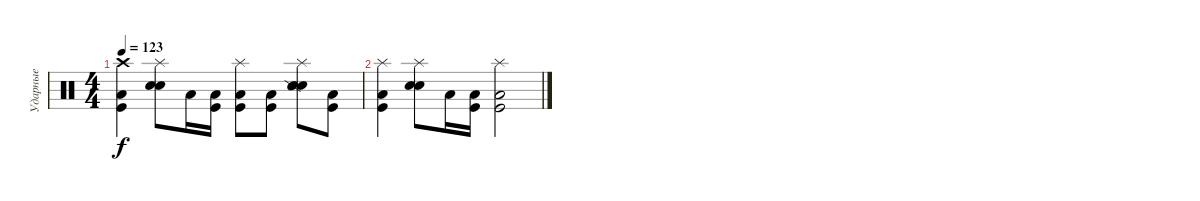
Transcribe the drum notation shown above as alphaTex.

\track ("Ударные" "Ударные") {instrument percussion}
\staff {score}
\articulation defaults
\ts (4 4)
\tempo 123
\clef neutral
\ks c
("Crash high (hit)" "Low Tom (hit)" "Kick (hit)").4{dy f} ("Splash (hit)" "Electric Snare (hit)" "Snare (hit) 2").8 "Low Floor Tom (hit)".16 ("Low Tom (hit)" "Kick (hit)").16 ("Splash (hit)" "Low Tom (hit)" "Kick (hit)").8 ("Low Tom (hit)" "Kick (hit)").8 ("Splash (hit)" "Electric Snare (hit)" "Snare (hit) 2" "Snare (side stick) 2").8 ("Low Tom (hit)" "Kick (hit)").8 |
("Splash (hit)" "Low Tom (hit)" "Kick (hit)").4 ("Splash (hit)" "Electric Snare (hit)" "Snare (hit) 2").8 "Low Floor Tom (hit)".16 ("Low Tom (hit)" "Kick (hit)").16 ("Splash (hit)" "Low Tom (hit)" "Kick (hit)").2
